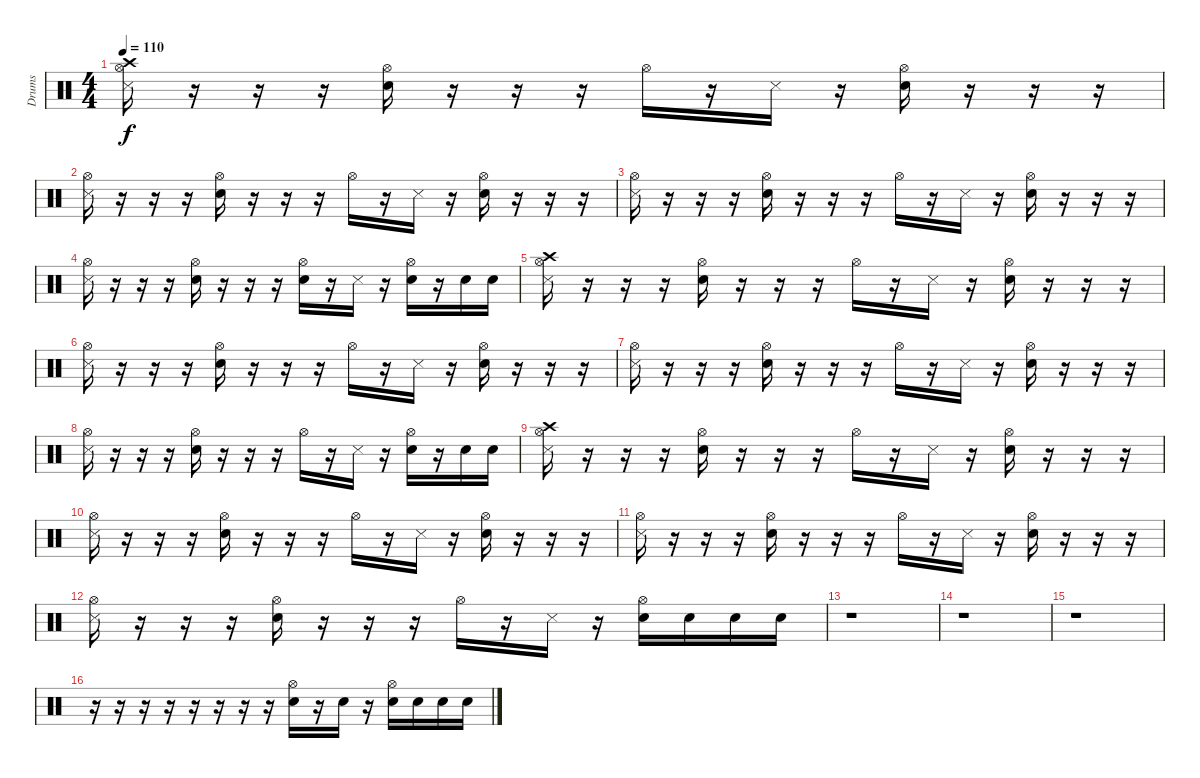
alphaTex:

\track ("Drums" "Drums") {instrument percussion}
\staff {score}
\articulation defaults
\ts (4 4)
\tempo 110
\clef neutral
\ks c
("Hi-Hat (open)" "Crash high (hit)" "Metronome (hit)").16{dy f} r.16 r.16 r.16 ("Hi-Hat (open)" "Electric Snare (hit)").16 r.16 r.16 r.16 "Hi-Hat (open)".16 r.16 "Metronome (hit)".16 r.16 ("Hi-Hat (open)" "Electric Snare (hit)").16 r.16 r.16 r.16 |
("Hi-Hat (open)" "Metronome (hit)").16 r.16 r.16 r.16 ("Hi-Hat (open)" "Electric Snare (hit)").16 r.16 r.16 r.16 "Hi-Hat (open)".16 r.16 "Metronome (hit)".16 r.16 ("Hi-Hat (open)" "Electric Snare (hit)").16 r.16 r.16 r.16 |
("Hi-Hat (open)" "Metronome (hit)").16 r.16 r.16 r.16 ("Hi-Hat (open)" "Electric Snare (hit)").16 r.16 r.16 r.16 "Hi-Hat (open)".16 r.16 "Metronome (hit)".16 r.16 ("Hi-Hat (open)" "Electric Snare (hit)").16 r.16 r.16 r.16 |
("Hi-Hat (open)" "Metronome (hit)").16 r.16 r.16 r.16 ("Hi-Hat (open)" "Electric Snare (hit)").16 r.16 r.16 r.16 ("Hi-Hat (open)" "Electric Snare (hit)").16 r.16 "Metronome (hit)".16 r.16 ("Hi-Hat (open)" "Electric Snare (hit)").16 r.16 "Electric Snare (hit)".16 "Electric Snare (hit)".16 |
("Hi-Hat (open)" "Crash high (hit)" "Metronome (hit)").16 r.16 r.16 r.16 ("Hi-Hat (open)" "Electric Snare (hit)").16 r.16 r.16 r.16 "Hi-Hat (open)".16 r.16 "Metronome (hit)".16 r.16 ("Hi-Hat (open)" "Electric Snare (hit)").16 r.16 r.16 r.16 |
("Hi-Hat (open)" "Metronome (hit)").16 r.16 r.16 r.16 ("Hi-Hat (open)" "Electric Snare (hit)").16 r.16 r.16 r.16 "Hi-Hat (open)".16 r.16 "Metronome (hit)".16 r.16 ("Hi-Hat (open)" "Electric Snare (hit)").16 r.16 r.16 r.16 |
("Hi-Hat (open)" "Metronome (hit)").16 r.16 r.16 r.16 ("Hi-Hat (open)" "Electric Snare (hit)").16 r.16 r.16 r.16 "Hi-Hat (open)".16 r.16 "Metronome (hit)".16 r.16 ("Hi-Hat (open)" "Electric Snare (hit)").16 r.16 r.16 r.16 |
("Hi-Hat (open)" "Metronome (hit)").16 r.16 r.16 r.16 ("Hi-Hat (open)" "Electric Snare (hit)").16 r.16 r.16 r.16 "Hi-Hat (open)".16 r.16 "Metronome (hit)".16 r.16 ("Hi-Hat (open)" "Electric Snare (hit)").16 r.16 "Electric Snare (hit)".16 "Electric Snare (hit)".16 |
("Hi-Hat (open)" "Crash high (hit)" "Metronome (hit)").16 r.16 r.16 r.16 ("Hi-Hat (open)" "Electric Snare (hit)").16 r.16 r.16 r.16 "Hi-Hat (open)".16 r.16 "Metronome (hit)".16 r.16 ("Hi-Hat (open)" "Electric Snare (hit)").16 r.16 r.16 r.16 |
("Hi-Hat (open)" "Metronome (hit)").16 r.16 r.16 r.16 ("Hi-Hat (open)" "Electric Snare (hit)").16 r.16 r.16 r.16 "Hi-Hat (open)".16 r.16 "Metronome (hit)".16 r.16 ("Hi-Hat (open)" "Electric Snare (hit)").16 r.16 r.16 r.16 |
("Hi-Hat (open)" "Metronome (hit)").16 r.16 r.16 r.16 ("Hi-Hat (open)" "Electric Snare (hit)").16 r.16 r.16 r.16 "Hi-Hat (open)".16 r.16 "Metronome (hit)".16 r.16 ("Hi-Hat (open)" "Electric Snare (hit)").16 r.16 r.16 r.16 |
("Hi-Hat (open)" "Metronome (hit)").16 r.16 r.16 r.16 ("Hi-Hat (open)" "Electric Snare (hit)").16 r.16 r.16 r.16 "Hi-Hat (open)".16 r.16 "Metronome (hit)".16 r.16 ("Hi-Hat (open)" "Electric Snare (hit)").16 "Electric Snare (hit)".16 "Electric Snare (hit)".16 "Electric Snare (hit)".16 |
r.1 |
r.1 |
r.1 |
r.16 r.16 r.16 r.16 r.16 r.16 r.16 r.16 ("Hi-Hat (open)" "Electric Snare (hit)").16 r.16 "Electric Snare (hit)".16 r.16 ("Hi-Hat (open)" "Electric Snare (hit)").16 "Electric Snare (hit)".16 "Electric Snare (hit)".16 "Electric Snare (hit)".16
